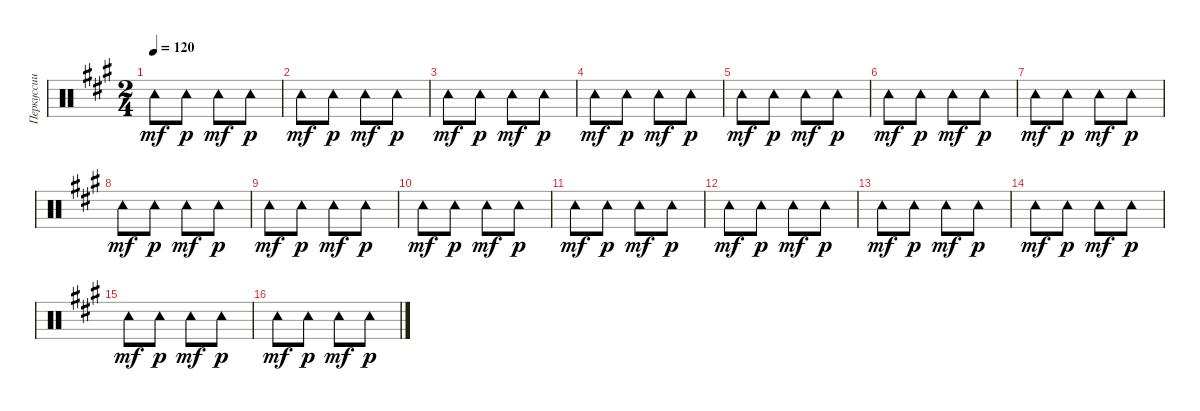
\track ("Перкуссии" "Перкуссии") {instrument percussion}
\staff {score}
\articulation defaults
\ts (2 4)
\tempo 120
\clef neutral
\ks f#minor "Tambourine (hit)".8{dy mf} "Tambourine (hit)".8{dy p} "Tambourine (hit)".8{dy mf} "Tambourine (hit)".8{dy p}
|
"Tambourine (hit)".8{dy mf} "Tambourine (hit)".8{dy p} "Tambourine (hit)".8{dy mf} "Tambourine (hit)".8{dy p} |
"Tambourine (hit)".8{dy mf} "Tambourine (hit)".8{dy p} "Tambourine (hit)".8{dy mf} "Tambourine (hit)".8{dy p} |
"Tambourine (hit)".8{dy mf} "Tambourine (hit)".8{dy p} "Tambourine (hit)".8{dy mf} "Tambourine (hit)".8{dy p} |
"Tambourine (hit)".8{dy mf} "Tambourine (hit)".8{dy p} "Tambourine (hit)".8{dy mf} "Tambourine (hit)".8{dy p} |
"Tambourine (hit)".8{dy mf} "Tambourine (hit)".8{dy p} "Tambourine (hit)".8{dy mf} "Tambourine (hit)".8{dy p} |
"Tambourine (hit)".8{dy mf} "Tambourine (hit)".8{dy p} "Tambourine (hit)".8{dy mf} "Tambourine (hit)".8{dy p} |
"Tambourine (hit)".8{dy mf} "Tambourine (hit)".8{dy p} "Tambourine (hit)".8{dy mf} "Tambourine (hit)".8{dy p} |
"Tambourine (hit)".8{dy mf} "Tambourine (hit)".8{dy p} "Tambourine (hit)".8{dy mf} "Tambourine (hit)".8{dy p} |
"Tambourine (hit)".8{dy mf} "Tambourine (hit)".8{dy p} "Tambourine (hit)".8{dy mf} "Tambourine (hit)".8{dy p} |
"Tambourine (hit)".8{dy mf} "Tambourine (hit)".8{dy p} "Tambourine (hit)".8{dy mf} "Tambourine (hit)".8{dy p} |
"Tambourine (hit)".8{dy mf} "Tambourine (hit)".8{dy p} "Tambourine (hit)".8{dy mf} "Tambourine (hit)".8{dy p} |
"Tambourine (hit)".8{dy mf} "Tambourine (hit)".8{dy p} "Tambourine (hit)".8{dy mf} "Tambourine (hit)".8{dy p} |
"Tambourine (hit)".8{dy mf} "Tambourine (hit)".8{dy p} "Tambourine (hit)".8{dy mf} "Tambourine (hit)".8{dy p} |
"Tambourine (hit)".8{dy mf} "Tambourine (hit)".8{dy p} "Tambourine (hit)".8{dy mf} "Tambourine (hit)".8{dy p} |
"Tambourine (hit)".8{dy mf} "Tambourine (hit)".8{dy p} "Tambourine (hit)".8{dy mf} "Tambourine (hit)".8{dy p}
